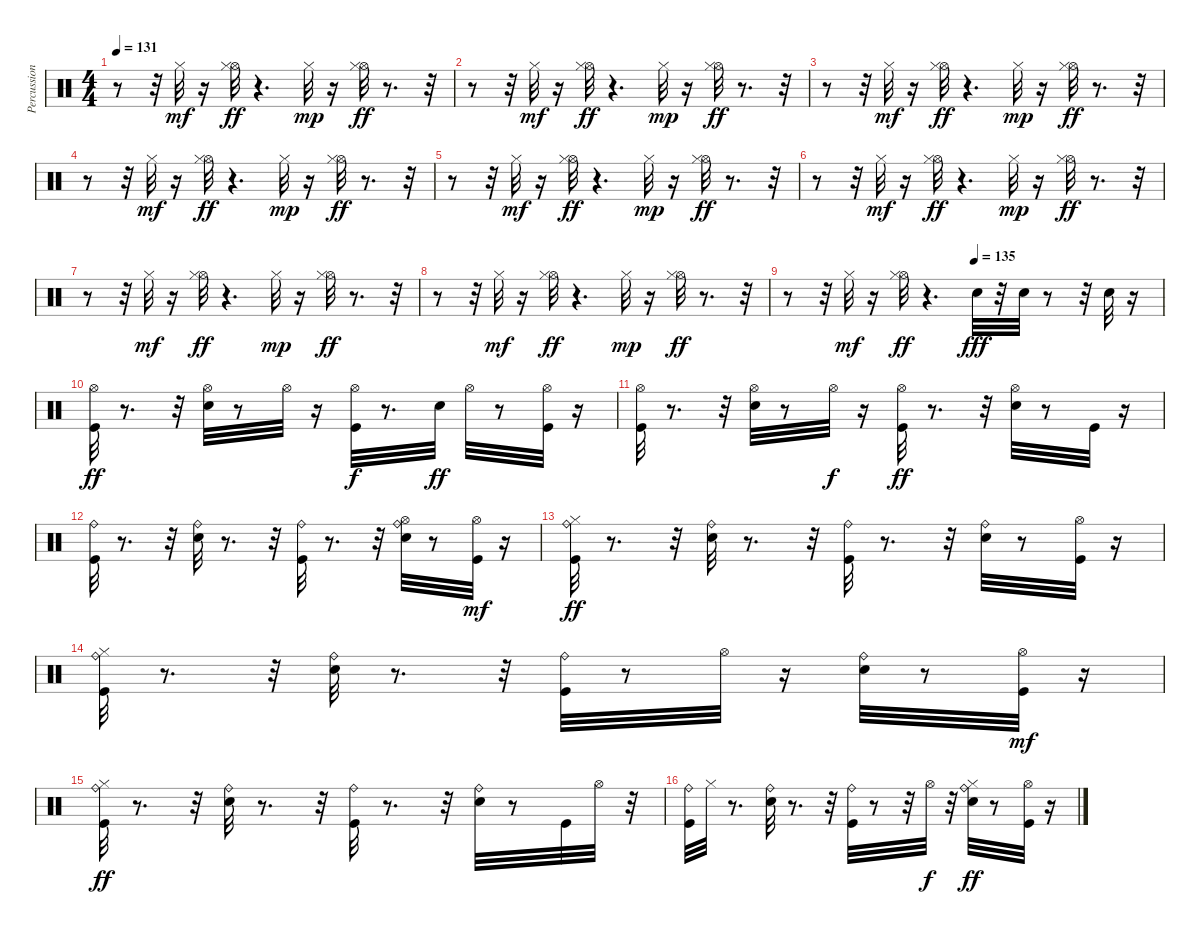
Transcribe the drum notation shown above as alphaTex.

\track ("Percussion" "Percussion") {instrument percussion}
\staff {score}
\articulation defaults
\ts (4 4)
\tempo 131
\clef neutral
\ks c
r.8{dy ff} r.32 "Hi-Hat (closed)".32{dy mf} r.16 ("Hi-Hat (open)" "Hi-Hat (closed)").32{dy ff} r.4{d} "Hi-Hat (closed)".32{dy mp} r.16 ("Hi-Hat (open)" "Hi-Hat (closed)").32{dy ff} r.8{d} r.32 |
r.8 r.32 "Hi-Hat (closed)".32{dy mf} r.16 ("Hi-Hat (open)" "Hi-Hat (closed)").32{dy ff} r.4{d} "Hi-Hat (closed)".32{dy mp} r.16 ("Hi-Hat (open)" "Hi-Hat (closed)").32{dy ff} r.8{d} r.32 |
r.8 r.32 "Hi-Hat (closed)".32{dy mf} r.16 ("Hi-Hat (open)" "Hi-Hat (closed)").32{dy ff} r.4{d} "Hi-Hat (closed)".32{dy mp} r.16 ("Hi-Hat (open)" "Hi-Hat (closed)").32{dy ff} r.8{d} r.32 |
r.8 r.32 "Hi-Hat (closed)".32{dy mf} r.16 ("Hi-Hat (open)" "Hi-Hat (closed)").32{dy ff} r.4{d} "Hi-Hat (closed)".32{dy mp} r.16 ("Hi-Hat (open)" "Hi-Hat (closed)").32{dy ff} r.8{d} r.32 |
r.8 r.32 "Hi-Hat (closed)".32{dy mf} r.16 ("Hi-Hat (open)" "Hi-Hat (closed)").32{dy ff} r.4{d} "Hi-Hat (closed)".32{dy mp} r.16 ("Hi-Hat (open)" "Hi-Hat (closed)").32{dy ff} r.8{d} r.32 |
r.8 r.32 "Hi-Hat (closed)".32{dy mf} r.16 ("Hi-Hat (open)" "Hi-Hat (closed)").32{dy ff} r.4{d} "Hi-Hat (closed)".32{dy mp} r.16 ("Hi-Hat (open)" "Hi-Hat (closed)").32{dy ff} r.8{d} r.32 |
r.8 r.32 "Hi-Hat (closed)".32{dy mf} r.16 ("Hi-Hat (open)" "Hi-Hat (closed)").32{dy ff} r.4{d} "Hi-Hat (closed)".32{dy mp} r.16 ("Hi-Hat (open)" "Hi-Hat (closed)").32{dy ff} r.8{d} r.32 |
r.8 r.32 "Hi-Hat (closed)".32{dy mf} r.16 ("Hi-Hat (open)" "Hi-Hat (closed)").32{dy ff} r.4{d} "Hi-Hat (closed)".32{dy mp} r.16 ("Hi-Hat (open)" "Hi-Hat (closed)").32{dy ff} r.8{d} r.32 |
\tempo (135 0.5)
r.8 r.32 "Hi-Hat (closed)".32{dy mf} r.16 ("Hi-Hat (open)" "Hi-Hat (closed)").32{dy ff} r.4{d} "Electric Snare (hit)".32{dy fff} r.32 "Electric Snare (hit)".32 r.8 r.32 "Electric Snare (hit)".32 r.16 |
("Hi-Hat (open)" "Kick (hit)").32{dy ff} r.8{d} r.32 ("Electric Snare (hit)" "Hi-Hat (open)").32 r.8 "Hi-Hat (open)".32 r.16 ("Hi-Hat (open)" "Kick (hit)").32{dy f} r.8{d} "Electric Snare (hit)".32{dy ff} "Hi-Hat (open)".32 r.8 ("Hi-Hat (open)" "Kick (hit)").32 r.16 |
("Hi-Hat (open)" "Kick (hit)").32 r.8{d} r.32 ("Electric Snare (hit)" "Hi-Hat (open)").32 r.8 "Hi-Hat (open)".32{dy f} r.16 ("Hi-Hat (open)" "Kick (hit)").32{dy ff} r.8{d} r.32 ("Electric Snare (hit)" "Hi-Hat (open)").32 r.8 "Kick (hit)".32 r.16 |
("Kick (hit)" "Ride (bell)").32 r.8{d} r.32 ("Electric Snare (hit)" "Ride (bell)").32 r.8{d} r.32 ("Kick (hit)" "Ride (bell)").32 r.8{d} r.32 ("Electric Snare (hit)" "Hi-Hat (open)" "Ride (bell)").32 r.8 ("Hi-Hat (open)" "Kick (hit)").32{dy mf} r.16 |
("Ride (bell)" "Kick (hit)" "Hi-Hat (closed)").32{dy ff} r.8{d} r.32 ("Ride (bell)" "Electric Snare (hit)").32 r.8{d} r.32 ("Kick (hit)" "Ride (bell)").32 r.8{d} r.32 ("Electric Snare (hit)" "Ride (bell)").32 r.8 ("Kick (hit)" "Hi-Hat (open)").32 r.16 |
("Kick (hit)" "Ride (bell)" "Hi-Hat (closed)").32 r.8{d} r.32 ("Ride (bell)" "Electric Snare (hit)").32 r.8{d} r.32 ("Kick (hit)" "Ride (bell)").32 r.8 "Hi-Hat (open)".32 r.16 ("Electric Snare (hit)" "Ride (bell)").32 r.8 ("Hi-Hat (open)" "Kick (hit)").32{dy mf} r.16 |
("Kick (hit)" "Ride (bell)" "Hi-Hat (closed)").32{dy ff} r.8{d} r.32 ("Electric Snare (hit)" "Ride (bell)").32 r.8{d} r.32 ("Kick (hit)" "Ride (bell)").32 r.8{d} r.32 ("Ride (bell)" "Electric Snare (hit)").32 r.8 "Kick (hit)".32 "Hi-Hat (open)".32 r.32 |
("Kick (hit)" "Ride (bell)").32 "Hi-Hat (closed)".32 r.8{d} ("Electric Snare (hit)" "Ride (bell)").32 r.8{d} r.32 ("Kick (hit)" "Ride (bell)").32 r.8 r.32 "Hi-Hat (open)".32{dy f} r.32 ("Electric Snare (hit)" "Hi-Hat (closed)" "Ride (bell)").32{dy ff} r.8 ("Kick (hit)" "Hi-Hat (open)").32 r.16
